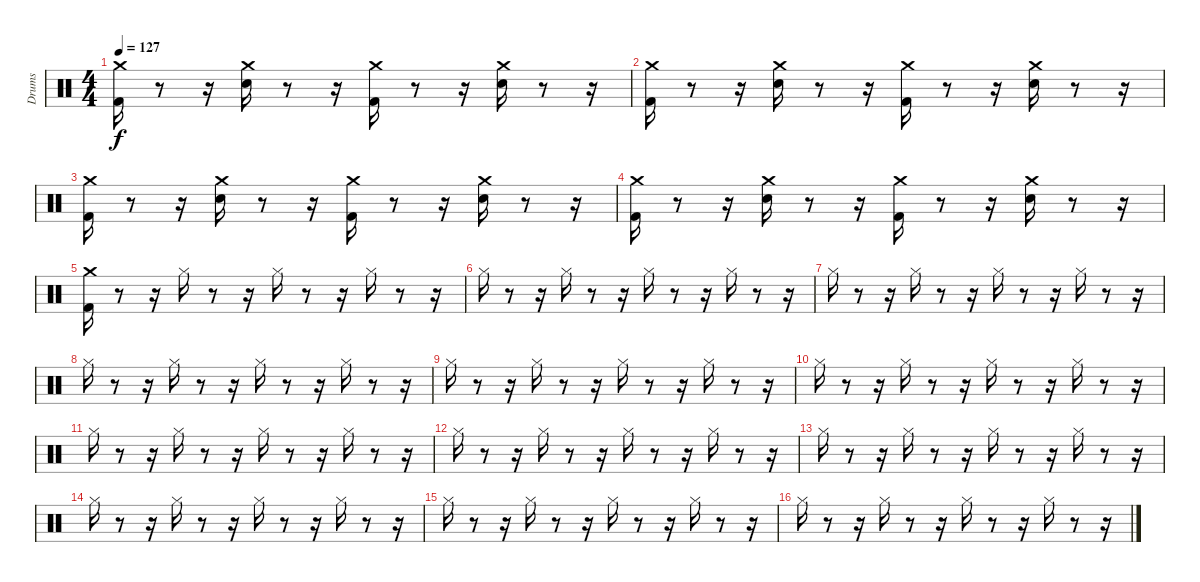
\track ("Drums               " "Drums     ") {instrument percussion}
\staff {score}
\articulation defaults
\ts (4 4)
\tempo 127
\clef neutral
\ks c
("Kick (hit) 2" "Crash medium (hit)").16{dy f} r.8 r.16 ("Electric Snare (hit)" "Crash medium (hit)").16 r.8 r.16 ("Kick (hit) 2" "Crash medium (hit)").16 r.8 r.16 ("Electric Snare (hit)" "Crash medium (hit)").16 r.8 r.16 |
("Kick (hit) 2" "Crash medium (hit)").16 r.8 r.16 ("Electric Snare (hit)" "Crash medium (hit)").16 r.8 r.16 ("Kick (hit) 2" "Crash medium (hit)").16 r.8 r.16 ("Electric Snare (hit)" "Crash medium (hit)").16 r.8 r.16 |
("Kick (hit) 2" "Crash medium (hit)").16 r.8 r.16 ("Electric Snare (hit)" "Crash medium (hit)").16 r.8 r.16 ("Kick (hit) 2" "Crash medium (hit)").16 r.8 r.16 ("Electric Snare (hit)" "Crash medium (hit)").16 r.8 r.16 |
("Kick (hit) 2" "Crash medium (hit)").16 r.8 r.16 ("Electric Snare (hit)" "Crash medium (hit)").16 r.8 r.16 ("Kick (hit) 2" "Crash medium (hit)").16 r.8 r.16 ("Electric Snare (hit)" "Crash medium (hit)").16 r.8 r.16 |
("Kick (hit) 2" "Crash medium (hit)").16 r.8 r.16 "Hi-Hat (closed)".16 r.8 r.16 "Hi-Hat (closed)".16 r.8 r.16 "Hi-Hat (closed)".16 r.8 r.16 |
"Hi-Hat (closed)".16 r.8 r.16 "Hi-Hat (closed)".16 r.8 r.16 "Hi-Hat (closed)".16 r.8 r.16 "Hi-Hat (closed)".16 r.8 r.16 |
"Hi-Hat (closed)".16 r.8 r.16 "Hi-Hat (closed)".16 r.8 r.16 "Hi-Hat (closed)".16 r.8 r.16 "Hi-Hat (closed)".16 r.8 r.16 |
"Hi-Hat (closed)".16 r.8 r.16 "Hi-Hat (closed)".16 r.8 r.16 "Hi-Hat (closed)".16 r.8 r.16 "Hi-Hat (closed)".16 r.8 r.16 |
"Hi-Hat (closed)".16 r.8 r.16 "Hi-Hat (closed)".16 r.8 r.16 "Hi-Hat (closed)".16 r.8 r.16 "Hi-Hat (closed)".16 r.8 r.16 |
"Hi-Hat (closed)".16 r.8 r.16 "Hi-Hat (closed)".16 r.8 r.16 "Hi-Hat (closed)".16 r.8 r.16 "Hi-Hat (closed)".16 r.8 r.16 |
"Hi-Hat (closed)".16 r.8 r.16 "Hi-Hat (closed)".16 r.8 r.16 "Hi-Hat (closed)".16 r.8 r.16 "Hi-Hat (closed)".16 r.8 r.16 |
"Hi-Hat (closed)".16 r.8 r.16 "Hi-Hat (closed)".16 r.8 r.16 "Hi-Hat (closed)".16 r.8 r.16 "Hi-Hat (closed)".16 r.8 r.16 |
"Hi-Hat (closed)".16 r.8 r.16 "Hi-Hat (closed)".16 r.8 r.16 "Hi-Hat (closed)".16 r.8 r.16 "Hi-Hat (closed)".16 r.8 r.16 |
"Hi-Hat (closed)".16 r.8 r.16 "Hi-Hat (closed)".16 r.8 r.16 "Hi-Hat (closed)".16 r.8 r.16 "Hi-Hat (closed)".16 r.8 r.16 |
"Hi-Hat (closed)".16 r.8 r.16 "Hi-Hat (closed)".16 r.8 r.16 "Hi-Hat (closed)".16 r.8 r.16 "Hi-Hat (closed)".16 r.8 r.16 |
"Hi-Hat (closed)".16 r.8 r.16 "Hi-Hat (closed)".16 r.8 r.16 "Hi-Hat (closed)".16 r.8 r.16 "Hi-Hat (closed)".16 r.8 r.16
